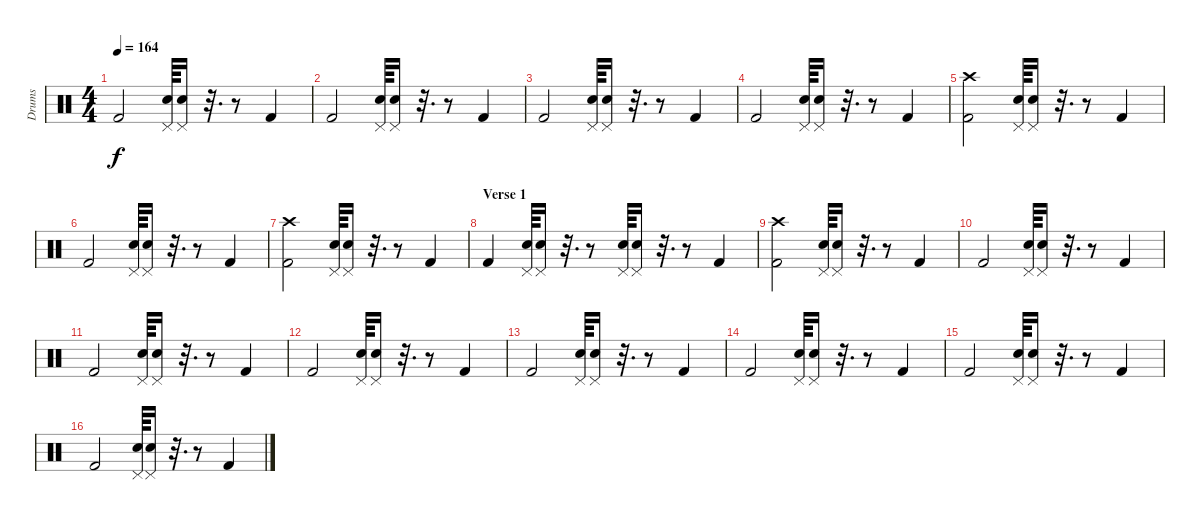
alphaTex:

\track ("Drums" "Drums") {instrument percussion}
\staff {score}
\articulation defaults
\ts (4 4)
\tempo 164
\clef neutral
\ks c "Kick (hit) 2".2{dy f}
("Pedal Hi-Hat (hit)" "Electric Snare (hit)").64 ("Pedal Hi-Hat (hit)" "Electric Snare (hit)").16 r.32{d} r.8 "Kick (hit) 2".4 |
"Kick (hit) 2".2 ("Pedal Hi-Hat (hit)" "Electric Snare (hit)").64 ("Pedal Hi-Hat (hit)" "Electric Snare (hit)").16 r.32{d} r.8 "Kick (hit) 2".4 |
"Kick (hit) 2".2 ("Pedal Hi-Hat (hit)" "Electric Snare (hit)").64 ("Pedal Hi-Hat (hit)" "Electric Snare (hit)").16 r.32{d} r.8 "Kick (hit) 2".4 |
"Kick (hit) 2".2 ("Pedal Hi-Hat (hit)" "Electric Snare (hit)").64 ("Pedal Hi-Hat (hit)" "Electric Snare (hit)").16 r.32{d} r.8 "Kick (hit) 2".4 |
("Crash high (hit)" "Kick (hit) 2").2 ("Pedal Hi-Hat (hit)" "Electric Snare (hit)").64 ("Pedal Hi-Hat (hit)" "Electric Snare (hit)").16 r.32{d} r.8 "Kick (hit) 2".4 |
"Kick (hit) 2".2 ("Pedal Hi-Hat (hit)" "Electric Snare (hit)").64 ("Pedal Hi-Hat (hit)" "Electric Snare (hit)").16 r.32{d} r.8 "Kick (hit) 2".4 |
("Crash high (hit)" "Kick (hit) 2").2 ("Pedal Hi-Hat (hit)" "Electric Snare (hit)").64 ("Pedal Hi-Hat (hit)" "Electric Snare (hit)").16 r.32{d} r.8 "Kick (hit) 2".4 |
\section ("" "Verse 1")
"Kick (hit) 2".4 ("Pedal Hi-Hat (hit)" "Electric Snare (hit)").64 ("Pedal Hi-Hat (hit)" "Electric Snare (hit)").16 r.32{d} r.8 ("Pedal Hi-Hat (hit)" "Electric Snare (hit)").64 ("Pedal Hi-Hat (hit)" "Electric Snare (hit)").16 r.32{d} r.8 "Kick (hit) 2".4 |
("Crash high (hit)" "Kick (hit) 2").2 ("Pedal Hi-Hat (hit)" "Electric Snare (hit)").64 ("Pedal Hi-Hat (hit)" "Electric Snare (hit)").16 r.32{d} r.8 "Kick (hit) 2".4 |
"Kick (hit) 2".2 ("Pedal Hi-Hat (hit)" "Electric Snare (hit)").64 ("Pedal Hi-Hat (hit)" "Electric Snare (hit)").16 r.32{d} r.8 "Kick (hit) 2".4 |
"Kick (hit) 2".2 ("Pedal Hi-Hat (hit)" "Electric Snare (hit)").64 ("Pedal Hi-Hat (hit)" "Electric Snare (hit)").16 r.32{d} r.8 "Kick (hit) 2".4 |
"Kick (hit) 2".2 ("Pedal Hi-Hat (hit)" "Electric Snare (hit)").64 ("Pedal Hi-Hat (hit)" "Electric Snare (hit)").16 r.32{d} r.8 "Kick (hit) 2".4 |
"Kick (hit) 2".2 ("Pedal Hi-Hat (hit)" "Electric Snare (hit)").64 ("Pedal Hi-Hat (hit)" "Electric Snare (hit)").16 r.32{d} r.8 "Kick (hit) 2".4 |
"Kick (hit) 2".2 ("Pedal Hi-Hat (hit)" "Electric Snare (hit)").64 ("Pedal Hi-Hat (hit)" "Electric Snare (hit)").16 r.32{d} r.8 "Kick (hit) 2".4 |
"Kick (hit) 2".2 ("Pedal Hi-Hat (hit)" "Electric Snare (hit)").64 ("Pedal Hi-Hat (hit)" "Electric Snare (hit)").16 r.32{d} r.8 "Kick (hit) 2".4 |
"Kick (hit) 2".2 ("Pedal Hi-Hat (hit)" "Electric Snare (hit)").64 ("Pedal Hi-Hat (hit)" "Electric Snare (hit)").16 r.32{d} r.8 "Kick (hit) 2".4
